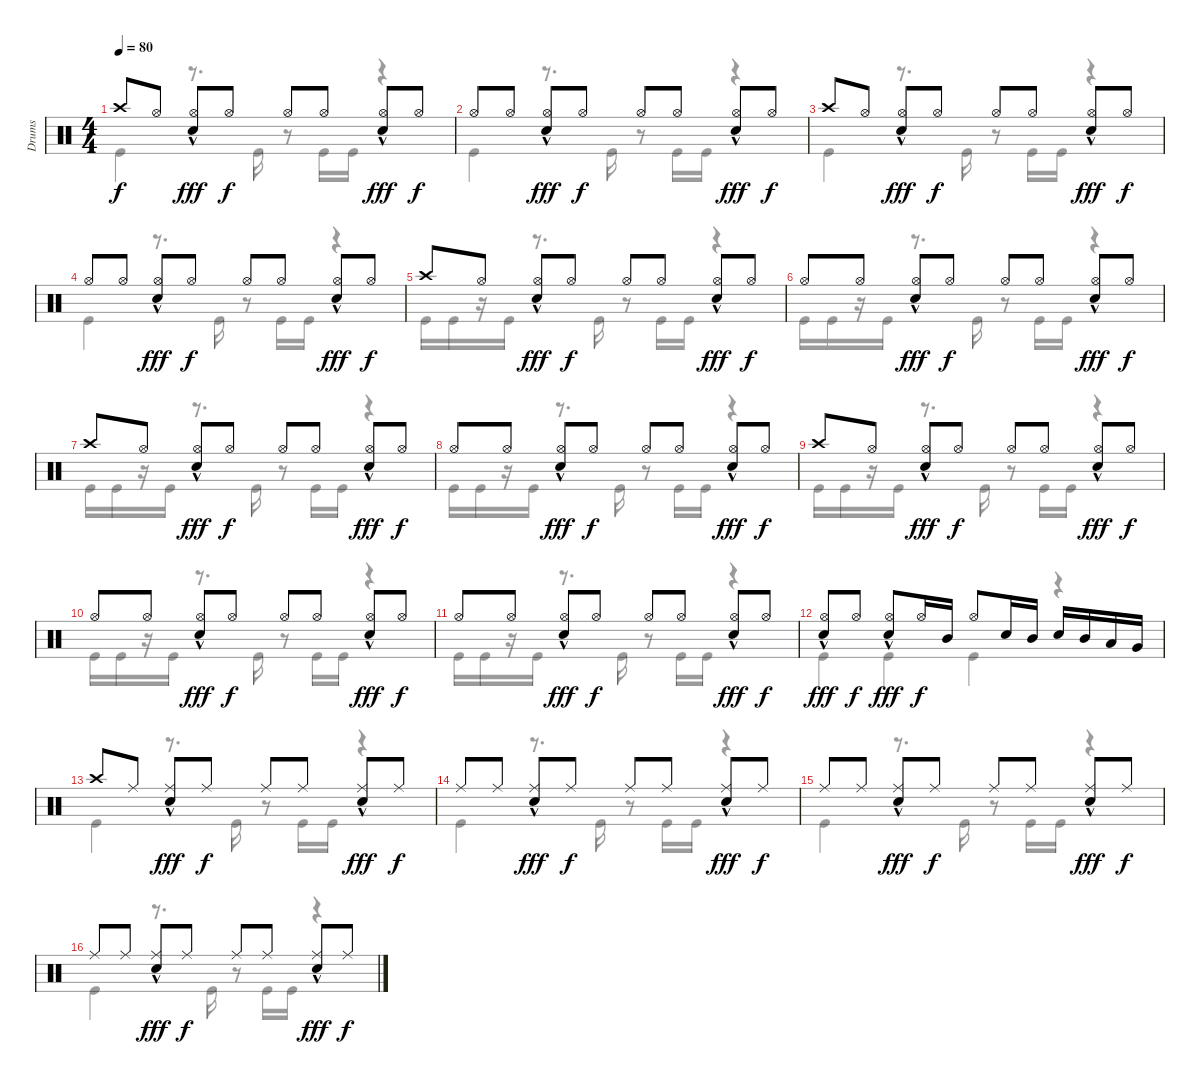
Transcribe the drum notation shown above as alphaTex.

\track ("Drums" "Drums") {instrument percussion}
\staff {score}
\articulation defaults
\voice
\ts (4 4)
\tempo 80
\clef neutral
\ks c "Crash high (hit)".8{dy f} "Hi-Hat (open)".8
("Hi-Hat (open)" "Snare (hit) 2"{hac}).8{dy fff} "Hi-Hat (open)".8{dy f} "Hi-Hat (open)".8 "Hi-Hat (open)".8 ("Hi-Hat (open)" "Snare (hit) 2"{hac}).8{dy fff} "Hi-Hat (open)".8{dy f} |
"Hi-Hat (open)".8 "Hi-Hat (open)".8 ("Hi-Hat (open)" "Snare (hit) 2"{hac}).8{dy fff} "Hi-Hat (open)".8{dy f} "Hi-Hat (open)".8 "Hi-Hat (open)".8 ("Hi-Hat (open)" "Snare (hit) 2"{hac}).8{dy fff} "Hi-Hat (open)".8{dy f} |
"Crash high (hit)".8 "Hi-Hat (open)".8 ("Hi-Hat (open)" "Snare (hit) 2"{hac}).8{dy fff} "Hi-Hat (open)".8{dy f} "Hi-Hat (open)".8 "Hi-Hat (open)".8 ("Hi-Hat (open)" "Snare (hit) 2"{hac}).8{dy fff} "Hi-Hat (open)".8{dy f} |
"Hi-Hat (open)".8 "Hi-Hat (open)".8 ("Hi-Hat (open)" "Snare (hit) 2"{hac}).8{dy fff} "Hi-Hat (open)".8{dy f} "Hi-Hat (open)".8 "Hi-Hat (open)".8 ("Hi-Hat (open)" "Snare (hit) 2"{hac}).8{dy fff} "Hi-Hat (open)".8{dy f} |
"Crash high (hit)".8 "Hi-Hat (open)".8 ("Hi-Hat (open)" "Snare (hit) 2"{hac}).8{dy fff} "Hi-Hat (open)".8{dy f} "Hi-Hat (open)".8 "Hi-Hat (open)".8 ("Hi-Hat (open)" "Snare (hit) 2"{hac}).8{dy fff} "Hi-Hat (open)".8{dy f} |
"Hi-Hat (open)".8 "Hi-Hat (open)".8 ("Hi-Hat (open)" "Snare (hit) 2"{hac}).8{dy fff} "Hi-Hat (open)".8{dy f} "Hi-Hat (open)".8 "Hi-Hat (open)".8 ("Hi-Hat (open)" "Snare (hit) 2"{hac}).8{dy fff} "Hi-Hat (open)".8{dy f} |
"Crash high (hit)".8 "Hi-Hat (open)".8 ("Hi-Hat (open)" "Snare (hit) 2"{hac}).8{dy fff} "Hi-Hat (open)".8{dy f} "Hi-Hat (open)".8 "Hi-Hat (open)".8 ("Hi-Hat (open)" "Snare (hit) 2"{hac}).8{dy fff} "Hi-Hat (open)".8{dy f} |
"Hi-Hat (open)".8 "Hi-Hat (open)".8 ("Hi-Hat (open)" "Snare (hit) 2"{hac}).8{dy fff} "Hi-Hat (open)".8{dy f} "Hi-Hat (open)".8 "Hi-Hat (open)".8 ("Hi-Hat (open)" "Snare (hit) 2"{hac}).8{dy fff} "Hi-Hat (open)".8{dy f} |
"Crash high (hit)".8 "Hi-Hat (open)".8 ("Hi-Hat (open)" "Snare (hit) 2"{hac}).8{dy fff} "Hi-Hat (open)".8{dy f} "Hi-Hat (open)".8 "Hi-Hat (open)".8 ("Hi-Hat (open)" "Snare (hit) 2"{hac}).8{dy fff} "Hi-Hat (open)".8{dy f} |
"Hi-Hat (open)".8 "Hi-Hat (open)".8 ("Hi-Hat (open)" "Snare (hit) 2"{hac}).8{dy fff} "Hi-Hat (open)".8{dy f} "Hi-Hat (open)".8 "Hi-Hat (open)".8 ("Hi-Hat (open)" "Snare (hit) 2"{hac}).8{dy fff} "Hi-Hat (open)".8{dy f} |
"Hi-Hat (open)".8 "Hi-Hat (open)".8 ("Hi-Hat (open)" "Snare (hit) 2"{hac}).8{dy fff} "Hi-Hat (open)".8{dy f} "Hi-Hat (open)".8 "Hi-Hat (open)".8 ("Hi-Hat (open)" "Snare (hit) 2"{hac}).8{dy fff} "Hi-Hat (open)".8{dy f} |
("Hi-Hat (open)" "Snare (hit) 2"{hac}).8{dy fff} "Hi-Hat (open)".8{dy f} ("Hi-Hat (open)" "Snare (hit) 2"{hac}).8{dy fff} "Hi-Hat (open)".16{dy f} "Mid Tom (hit)".16 "Hi-Hat (open)".8 "Snare (hit) 2".16 "Mid Tom (hit)".16 "Snare (hit) 2".16 "Mid Tom (hit)".16 "Low Tom (hit)".16 "Very Low Tom (hit)".16 |
"Crash high (hit)".8 "Ride (middle)".8 ("Ride (middle)" "Snare (hit) 2"{hac}).8{dy fff} "Ride (middle)".8{dy f} "Ride (middle)".8 "Ride (middle)".8 ("Ride (middle)" "Snare (hit) 2"{hac}).8{dy fff} "Ride (middle)".8{dy f} |
"Ride (middle)".8 "Ride (middle)".8 ("Ride (middle)" "Snare (hit) 2"{hac}).8{dy fff} "Ride (middle)".8{dy f} "Ride (middle)".8 "Ride (middle)".8 ("Ride (middle)" "Snare (hit) 2"{hac}).8{dy fff} "Ride (middle)".8{dy f} |
"Ride (middle)".8 "Ride (middle)".8 ("Ride (middle)" "Snare (hit) 2"{hac}).8{dy fff} "Ride (middle)".8{dy f} "Ride (middle)".8 "Ride (middle)".8 ("Ride (middle)" "Snare (hit) 2"{hac}).8{dy fff} "Ride (middle)".8{dy f} |
"Ride (middle)".8 "Ride (middle)".8 ("Ride (middle)" "Snare (hit) 2"{hac}).8{dy fff} "Ride (middle)".8{dy f} "Ride (middle)".8 "Ride (middle)".8 ("Ride (middle)" "Snare (hit) 2"{hac}).8{dy fff} "Ride (middle)".8{dy f}
\voice
\clef neutral
\ottava regular
\simile none
\ks c "Kick (hit)".4{dy f}
r.8{d} "Kick (hit)".16 r.8 "Kick (hit)".16 "Kick (hit)".16 r.4 |
"Kick (hit)".4 r.8{d} "Kick (hit)".16 r.8 "Kick (hit)".16 "Kick (hit)".16 r.4 |
"Kick (hit)".4 r.8{d} "Kick (hit)".16 r.8 "Kick (hit)".16 "Kick (hit)".16 r.4 |
"Kick (hit)".4 r.8{d} "Kick (hit)".16 r.8 "Kick (hit)".16 "Kick (hit)".16 r.4 |
"Kick (hit)".16 "Kick (hit)".16 r.16 "Kick (hit)".16 r.8{d} "Kick (hit)".16 r.8 "Kick (hit)".16 "Kick (hit)".16 r.4 |
"Kick (hit)".16 "Kick (hit)".16 r.16 "Kick (hit)".16 r.8{d} "Kick (hit)".16 r.8 "Kick (hit)".16 "Kick (hit)".16 r.4 |
"Kick (hit)".16 "Kick (hit)".16 r.16 "Kick (hit)".16 r.8{d} "Kick (hit)".16 r.8 "Kick (hit)".16 "Kick (hit)".16 r.4 |
"Kick (hit)".16 "Kick (hit)".16 r.16 "Kick (hit)".16 r.8{d} "Kick (hit)".16 r.8 "Kick (hit)".16 "Kick (hit)".16 r.4 |
"Kick (hit)".16 "Kick (hit)".16 r.16 "Kick (hit)".16 r.8{d} "Kick (hit)".16 r.8 "Kick (hit)".16 "Kick (hit)".16 r.4 |
"Kick (hit)".16 "Kick (hit)".16 r.16 "Kick (hit)".16 r.8{d} "Kick (hit)".16 r.8 "Kick (hit)".16 "Kick (hit)".16 r.4 |
"Kick (hit)".16 "Kick (hit)".16 r.16 "Kick (hit)".16 r.8{d} "Kick (hit)".16 r.8 "Kick (hit)".16 "Kick (hit)".16 r.4 |
"Kick (hit)".4 "Kick (hit)".4 "Kick (hit)".4 r.4 |
"Kick (hit)".4 r.8{d} "Kick (hit)".16 r.8 "Kick (hit)".16 "Kick (hit)".16 r.4 |
"Kick (hit)".4 r.8{d} "Kick (hit)".16 r.8 "Kick (hit)".16 "Kick (hit)".16 r.4 |
"Kick (hit)".4 r.8{d} "Kick (hit)".16 r.8 "Kick (hit)".16 "Kick (hit)".16 r.4 |
"Kick (hit)".4 r.8{d} "Kick (hit)".16 r.8 "Kick (hit)".16 "Kick (hit)".16 r.4
